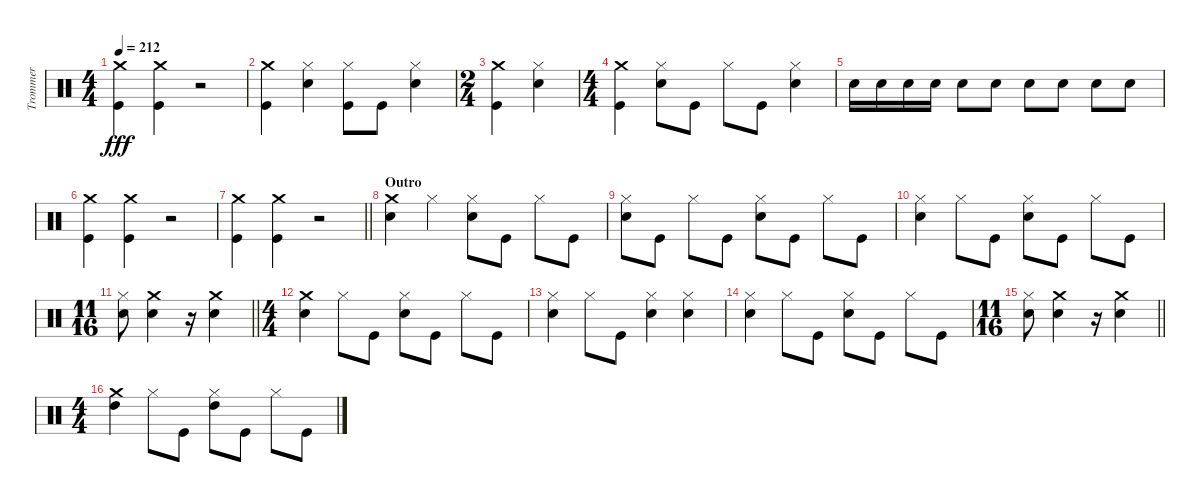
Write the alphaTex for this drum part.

\track ("Trommer" "Trommer") {instrument percussion}
\staff {score}
\articulation defaults
\ts (4 4)
\tempo 212
\clef neutral
\ks c
("Kick (hit)" "Crash medium (hit)").4{dy fff} ("Kick (hit)" "Crash medium (hit)").4 r.2 |
("Kick (hit)" "Crash medium (hit)").4 ("Snare (hit) 2" "Hi-Hat (closed)").4 ("Kick (hit)" "Hi-Hat (closed)").8 "Kick (hit)".8 ("Hi-Hat (closed)" "Snare (hit) 2").4 |
\ts (2 4)
("Kick (hit)" "Crash medium (hit)").4 ("Snare (hit) 2" "Hi-Hat (closed)").4 |
\ts (4 4)
("Kick (hit)" "Crash medium (hit)").4 ("Snare (hit) 2" "Hi-Hat (closed)").8 "Kick (hit)".8 "Hi-Hat (closed)".8 "Kick (hit)".8 ("Snare (hit) 2" "Hi-Hat (closed)").4 |
"Snare (hit) 2".16 "Snare (hit) 2".16 "Snare (hit) 2".16 "Snare (hit) 2".16 "Snare (hit) 2".8 "Snare (hit) 2".8 "Snare (hit) 2".8 "Snare (hit) 2".8 "Snare (hit) 2".8 "Snare (hit) 2".8 |
("Kick (hit)" "Crash medium (hit)").4 ("Crash medium (hit)" "Kick (hit)").4 r.2 |
\barLineRight lightlight
("Crash medium (hit)" "Kick (hit)").4 ("Crash medium (hit)" "Kick (hit)").4 r.2 |
\section ("" "Outro")
("Snare (hit) 2" "Crash medium (hit)").4 "Hi-Hat (closed)".4 ("Snare (hit) 2" "Hi-Hat (closed)").8 "Kick (hit)".8 "Hi-Hat (closed)".8 "Kick (hit)".8 |
("Snare (hit) 2" "Hi-Hat (closed)").8 "Kick (hit)".8 "Hi-Hat (closed)".8 "Kick (hit)".8 ("Snare (hit) 2" "Hi-Hat (closed)").8 "Kick (hit)".8 "Hi-Hat (closed)".8 "Kick (hit)".8 |
("Snare (hit) 2" "Hi-Hat (closed)").4 "Hi-Hat (closed)".8 "Kick (hit)".8 ("Snare (hit) 2" "Hi-Hat (closed)").8 "Kick (hit)".8 "Hi-Hat (closed)".8 "Kick (hit)".8 |
\ts (11 16)
\barLineRight lightlight
("Hi-Hat (closed)" "Snare (hit) 2").8 ("Snare (hit) 2" "Crash medium (hit)").4 r.16 ("Crash medium (hit)" "Snare (hit) 2").4 |
\ts (4 4)
("Crash medium (hit)" "Snare (hit) 2").4 "Hi-Hat (closed)".8 "Kick (hit)".8 ("Hi-Hat (closed)" "Snare (hit) 2").8 "Kick (hit)".8 "Hi-Hat (closed)".8 "Kick (hit)".8 |
("Snare (hit) 2" "Hi-Hat (closed)").4 "Hi-Hat (closed)".8 "Kick (hit)".8 ("Hi-Hat (closed)" "Snare (hit) 2").4 ("Snare (hit) 2" "Hi-Hat (closed)").4 |
("Snare (hit) 2" "Hi-Hat (closed)").4 "Hi-Hat (closed)".8 "Kick (hit)".8 ("Snare (hit) 2" "Hi-Hat (closed)").8 "Kick (hit)".8 "Hi-Hat (closed)".8 "Kick (hit)".8 |
\ts (11 16)
\barLineRight lightlight
("Snare (hit) 2" "Hi-Hat (closed)").8 ("Snare (hit) 2" "Crash medium (hit)").4 r.16 ("Snare (hit) 2" "Crash medium (hit)").4 |
\ts (4 4)
("High Tom (hit)" "Crash medium (hit)").4 "Hi-Hat (closed)".8 "Kick (hit)".8 ("High Tom (hit)" "Hi-Hat (closed)").8 "Kick (hit)".8 "Hi-Hat (closed)".8 "Kick (hit)".8
